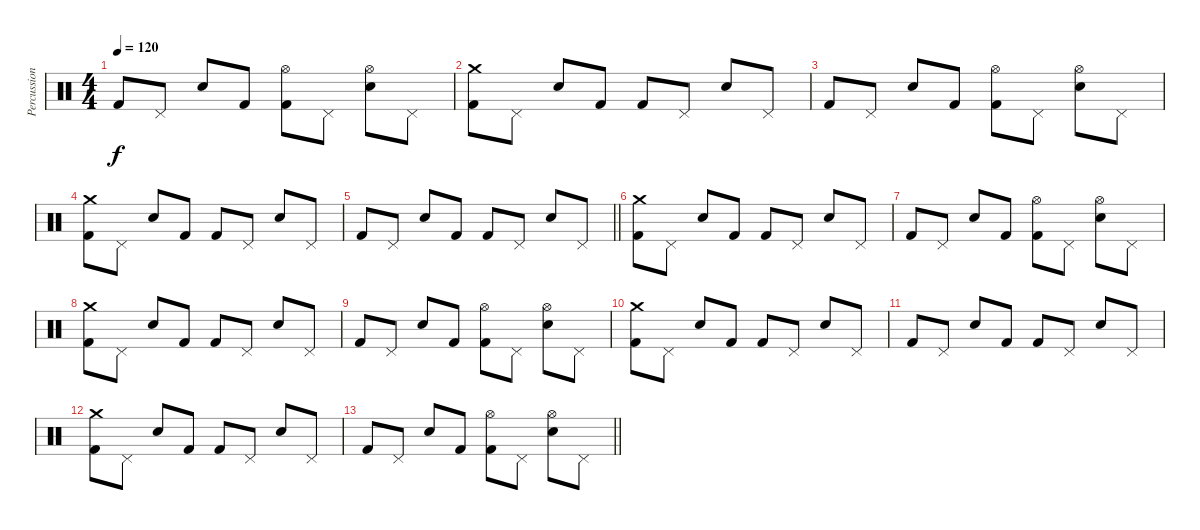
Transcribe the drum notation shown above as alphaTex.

\track ("Percussions" "Percussion") {instrument percussion}
\staff {score}
\articulation defaults
\ts (4 4)
\tempo 120
\clef neutral
\ks c "Kick (hit) 2".8{dy f} "Pedal Hi-Hat (hit)".8 "Snare (hit) 2".8 "Kick (hit) 2".8
("Hi-Hat (open)" "Kick (hit) 2").8 "Pedal Hi-Hat (hit)".8 ("Hi-Hat (open)" "Snare (hit) 2").8 "Pedal Hi-Hat (hit)".8 |
("Crash medium (hit)" "Kick (hit) 2").8 "Pedal Hi-Hat (hit)".8 "Snare (hit) 2".8 "Kick (hit) 2".8 "Kick (hit) 2".8 "Pedal Hi-Hat (hit)".8 "Snare (hit) 2".8 "Pedal Hi-Hat (hit)".8 |
"Kick (hit) 2".8 "Pedal Hi-Hat (hit)".8 "Snare (hit) 2".8 "Kick (hit) 2".8 ("Hi-Hat (open)" "Kick (hit) 2").8 "Pedal Hi-Hat (hit)".8 ("Hi-Hat (open)" "Snare (hit) 2").8 "Pedal Hi-Hat (hit)".8 |
("Crash medium (hit)" "Kick (hit) 2").8 "Pedal Hi-Hat (hit)".8 "Snare (hit) 2".8 "Kick (hit) 2".8 "Kick (hit) 2".8 "Pedal Hi-Hat (hit)".8 "Snare (hit) 2".8 "Pedal Hi-Hat (hit)".8 |
\barLineRight lightlight "Kick (hit) 2".8 "Pedal Hi-Hat (hit)".8 "Snare (hit) 2".8 "Kick (hit) 2".8 "Kick (hit) 2".8 "Pedal Hi-Hat (hit)".8 "Snare (hit) 2".8 "Pedal Hi-Hat (hit)".8
|
("Crash medium (hit)" "Kick (hit) 2").8 "Pedal Hi-Hat (hit)".8 "Snare (hit) 2".8 "Kick (hit) 2".8 "Kick (hit) 2".8 "Pedal Hi-Hat (hit)".8 "Snare (hit) 2".8 "Pedal Hi-Hat (hit)".8 |
"Kick (hit) 2".8 "Pedal Hi-Hat (hit)".8 "Snare (hit) 2".8 "Kick (hit) 2".8 ("Hi-Hat (open)" "Kick (hit) 2").8 "Pedal Hi-Hat (hit)".8 ("Hi-Hat (open)" "Snare (hit) 2").8 "Pedal Hi-Hat (hit)".8 |
("Crash medium (hit)" "Kick (hit) 2").8 "Pedal Hi-Hat (hit)".8 "Snare (hit) 2".8 "Kick (hit) 2".8 "Kick (hit) 2".8 "Pedal Hi-Hat (hit)".8 "Snare (hit) 2".8 "Pedal Hi-Hat (hit)".8 |
"Kick (hit) 2".8 "Pedal Hi-Hat (hit)".8 "Snare (hit) 2".8 "Kick (hit) 2".8 ("Hi-Hat (open)" "Kick (hit) 2").8 "Pedal Hi-Hat (hit)".8 ("Hi-Hat (open)" "Snare (hit) 2").8 "Pedal Hi-Hat (hit)".8 |
("Crash medium (hit)" "Kick (hit) 2").8 "Pedal Hi-Hat (hit)".8 "Snare (hit) 2".8 "Kick (hit) 2".8 "Kick (hit) 2".8 "Pedal Hi-Hat (hit)".8 "Snare (hit) 2".8 "Pedal Hi-Hat (hit)".8 |
"Kick (hit) 2".8 "Pedal Hi-Hat (hit)".8 "Snare (hit) 2".8 "Kick (hit) 2".8 "Kick (hit) 2".8 "Pedal Hi-Hat (hit)".8 "Snare (hit) 2".8 "Pedal Hi-Hat (hit)".8 |
("Crash medium (hit)" "Kick (hit) 2").8 "Pedal Hi-Hat (hit)".8 "Snare (hit) 2".8 "Kick (hit) 2".8 "Kick (hit) 2".8 "Pedal Hi-Hat (hit)".8 "Snare (hit) 2".8 "Pedal Hi-Hat (hit)".8 |
\barLineRight lightlight "Kick (hit) 2".8 "Pedal Hi-Hat (hit)".8 "Snare (hit) 2".8 "Kick (hit) 2".8
("Hi-Hat (open)" "Kick (hit) 2").8 "Pedal Hi-Hat (hit)".8 ("Hi-Hat (open)" "Snare (hit) 2").8 "Pedal Hi-Hat (hit)".8
